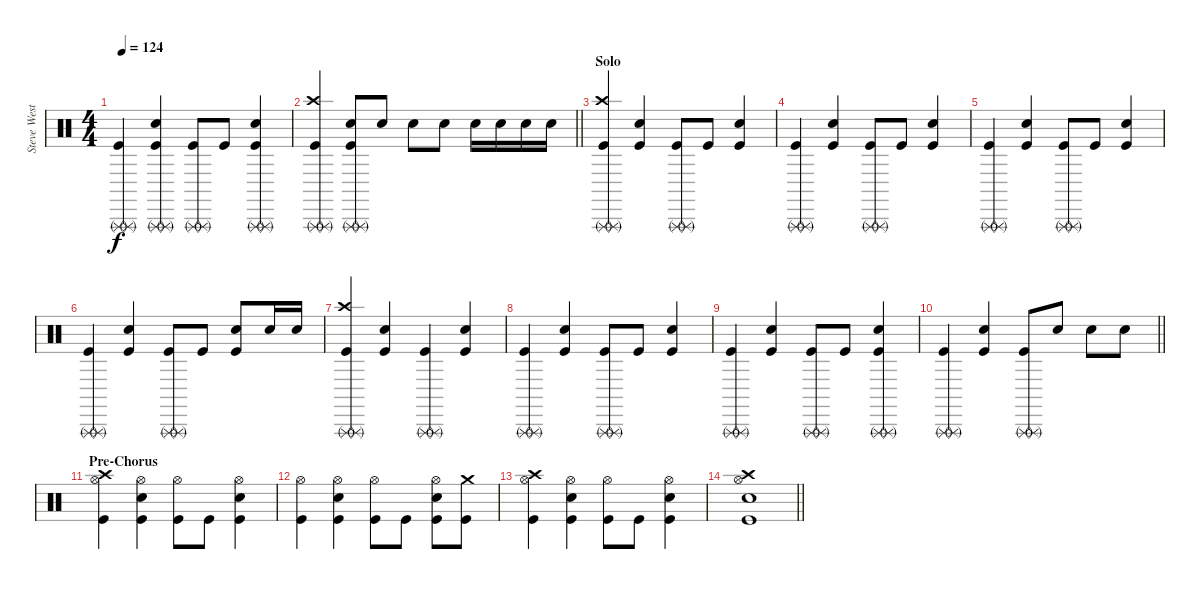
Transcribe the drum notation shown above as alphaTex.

\track ("Steve West" "Steve West") {instrument percussion}
\staff {score}
\articulation defaults
\ts (4 4)
\tempo 124
\clef neutral
\ks c
("Triangle (rnute)" "Triangle (rnute)" "Kick (hit)").4{dy f} ("Triangle (rnute)" "Triangle (rnute)" "Snare (hit) 2" "Kick (hit)").4 ("Triangle (rnute)" "Triangle (rnute)" "Kick (hit)").8 "Kick (hit)".8 ("Triangle (rnute)" "Triangle (rnute)" "Snare (hit) 2" "Kick (hit)").4 |
\barLineRight lightlight
("Crash high (hit)" "Triangle (rnute)" "Triangle (rnute)" "Kick (hit)").4 ("Triangle (rnute)" "Triangle (rnute)" "Snare (hit) 2" "Kick (hit)").8 "Snare (hit) 2".8 "Snare (hit) 2".8 "Snare (hit) 2".8 "Snare (hit) 2".16 "Snare (hit) 2".16 "Snare (hit) 2".16 "Snare (hit) 2".16 |
\section ("" "Solo")
("Crash high (hit)" "Triangle (rnute)" "Triangle (rnute)" "Kick (hit)").4 ("Snare (hit) 2" "Kick (hit)").4 ("Triangle (rnute)" "Triangle (rnute)" "Kick (hit)").8 "Kick (hit)".8 ("Snare (hit) 2" "Kick (hit)").4 |
("Triangle (rnute)" "Triangle (rnute)" "Kick (hit)").4 ("Snare (hit) 2" "Kick (hit)").4 ("Triangle (rnute)" "Triangle (rnute)" "Kick (hit)").8 "Kick (hit)".8 ("Snare (hit) 2" "Kick (hit)").4 |
("Triangle (rnute)" "Triangle (rnute)" "Kick (hit)").4 ("Snare (hit) 2" "Kick (hit)").4 ("Triangle (rnute)" "Triangle (rnute)" "Kick (hit)").8 "Kick (hit)".8 ("Snare (hit) 2" "Kick (hit)").4 |
("Triangle (rnute)" "Triangle (rnute)" "Kick (hit)").4 ("Snare (hit) 2" "Kick (hit)").4 ("Triangle (rnute)" "Triangle (rnute)" "Kick (hit)").8 "Kick (hit)".8 ("Snare (hit) 2" "Kick (hit)").8 "Snare (hit) 2".16 "Snare (hit) 2".16 |
("Crash high (hit)" "Triangle (rnute)" "Triangle (rnute)" "Kick (hit)").4 ("Snare (hit) 2" "Kick (hit)").4 ("Triangle (rnute)" "Triangle (rnute)" "Kick (hit)").4 ("Snare (hit) 2" "Kick (hit)").4 |
("Triangle (rnute)" "Triangle (rnute)" "Kick (hit)").4 ("Snare (hit) 2" "Kick (hit)").4 ("Triangle (rnute)" "Triangle (rnute)" "Kick (hit)").8 "Kick (hit)".8 ("Snare (hit) 2" "Kick (hit)").4 |
("Triangle (rnute)" "Triangle (rnute)" "Kick (hit)").4 ("Snare (hit) 2" "Kick (hit)").4 ("Triangle (rnute)" "Triangle (rnute)" "Kick (hit)").8 "Kick (hit)".8 ("Triangle (rnute)" "Triangle (rnute)" "Snare (hit) 2" "Kick (hit)").4 |
\barLineRight lightlight
("Triangle (rnute)" "Triangle (rnute)" "Kick (hit)").4 ("Snare (hit) 2" "Kick (hit)").4 ("Triangle (rnute)" "Triangle (rnute)" "Kick (hit)").8 "Snare (hit) 2".8 "Snare (hit) 2".8 "Snare (hit) 2".8 |
\section ("" "Pre-Chorus")
("Crash high (hit)" "Hi-Hat (open)" "Kick (hit)").4 ("Hi-Hat (open)" "Snare (hit) 2" "Kick (hit)").4 ("Hi-Hat (open)" "Kick (hit)").8 "Kick (hit)".8 ("Hi-Hat (open)" "Snare (hit) 2" "Kick (hit)").4 |
("Hi-Hat (open)" "Kick (hit)").4 ("Hi-Hat (open)" "Snare (hit) 2" "Kick (hit)").4 ("Hi-Hat (open)" "Kick (hit)").8 "Kick (hit)".8 ("Hi-Hat (open)" "Snare (hit) 2" "Kick (hit)").8 ("Crash medium (hit)" "Kick (hit)").8 |
("Crash high (hit)" "Hi-Hat (open)" "Kick (hit)").4 ("Hi-Hat (open)" "Snare (hit) 2" "Kick (hit)").4 ("Hi-Hat (open)" "Kick (hit)").8 "Kick (hit)".8 ("Hi-Hat (open)" "Snare (hit) 2" "Kick (hit)").4 |
\barLineRight lightlight
("Crash high (hit)" "Hi-Hat (open)" "Snare (hit) 2" "Kick (hit)").1
